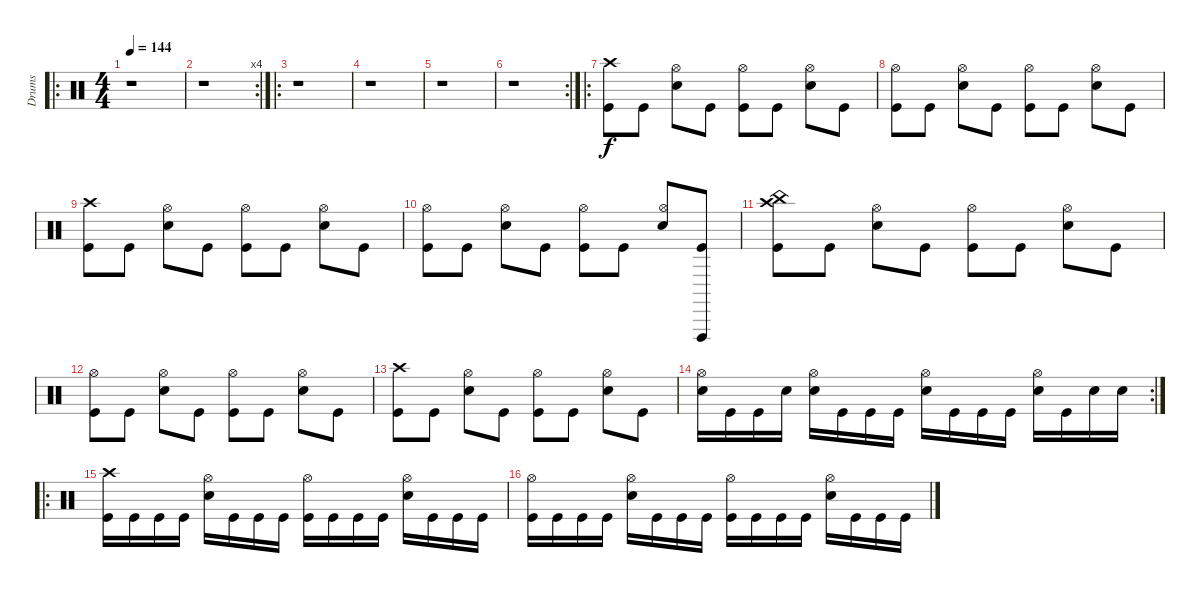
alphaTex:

\track ("Drums" "Drums") {instrument percussion}
\staff {score}
\articulation defaults
\ro
\ts (4 4)
\tempo 144
\clef neutral
\ks c
r.1{dy f} |
\rc 4
r.1 |
\ro
r.1 |
r.1 |
r.1 |
\rc 2
r.1 |
\ro
("Crash high (hit)" "Kick (hit)").8 "Kick (hit)".8 ("Hi-Hat (open)" "Electric Snare (hit)").8 "Kick (hit)".8 ("Hi-Hat (open)" "Kick (hit)").8 "Kick (hit)".8 ("Hi-Hat (open)" "Electric Snare (hit)").8 "Kick (hit)".8 |
("Hi-Hat (open)" "Kick (hit)").8 "Kick (hit)".8 ("Hi-Hat (open)" "Electric Snare (hit)").8 "Kick (hit)".8 ("Hi-Hat (open)" "Kick (hit)").8 "Kick (hit)".8 ("Hi-Hat (open)" "Electric Snare (hit)").8 "Kick (hit)".8 |
("Crash high (hit)" "Kick (hit)").8 "Kick (hit)".8 ("Hi-Hat (open)" "Electric Snare (hit)").8 "Kick (hit)".8 ("Hi-Hat (open)" "Kick (hit)").8 "Kick (hit)".8 ("Hi-Hat (open)" "Electric Snare (hit)").8 "Kick (hit)".8 |
("Hi-Hat (open)" "Kick (hit)").8 "Kick (hit)".8 ("Hi-Hat (open)" "Electric Snare (hit)").8 "Kick (hit)".8 ("Hi-Hat (open)" "Kick (hit)").8 "Kick (hit)".8 ("Hi-Hat (open)" "Electric Snare (hit)").8 ("Vibraslap (hit)" "Kick (hit)").8 |
("Crash high (hit)" "China (hit)" "Kick (hit)").8 "Kick (hit)".8 ("Hi-Hat (open)" "Electric Snare (hit)").8 "Kick (hit)".8 ("Hi-Hat (open)" "Kick (hit)").8 "Kick (hit)".8 ("Hi-Hat (open)" "Electric Snare (hit)").8 "Kick (hit)".8 |
("Hi-Hat (open)" "Kick (hit)").8 "Kick (hit)".8 ("Hi-Hat (open)" "Electric Snare (hit)").8 "Kick (hit)".8 ("Hi-Hat (open)" "Kick (hit)").8 "Kick (hit)".8 ("Hi-Hat (open)" "Electric Snare (hit)").8 "Kick (hit)".8 |
("Crash high (hit)" "Kick (hit)").8 "Kick (hit)".8 ("Hi-Hat (open)" "Electric Snare (hit)").8 "Kick (hit)".8 ("Hi-Hat (open)" "Kick (hit)").8 "Kick (hit)".8 ("Hi-Hat (open)" "Electric Snare (hit)").8 "Kick (hit)".8 |
\rc 2
("Hi-Hat (open)" "Electric Snare (hit)").16 "Kick (hit)".16 "Kick (hit)".16 "Electric Snare (hit)".16 ("Hi-Hat (open)" "Electric Snare (hit)").16 "Kick (hit)".16 "Kick (hit)".16 "Kick (hit)".16 ("Hi-Hat (open)" "Electric Snare (hit)").16 "Kick (hit)".16 "Kick (hit)".16 "Kick (hit)".16 ("Hi-Hat (open)" "Electric Snare (hit)").16 "Kick (hit)".16 "Electric Snare (hit)".16 "Electric Snare (hit)".16 |
\ro
("Crash high (hit)" "Kick (hit)").16 "Kick (hit)".16 "Kick (hit)".16 "Kick (hit)".16 ("Hi-Hat (open)" "Electric Snare (hit)").16 "Kick (hit)".16 "Kick (hit)".16 "Kick (hit)".16 ("Hi-Hat (open)" "Kick (hit)").16 "Kick (hit)".16 "Kick (hit)".16 "Kick (hit)".16 ("Hi-Hat (open)" "Electric Snare (hit)").16 "Kick (hit)".16 "Kick (hit)".16 "Kick (hit)".16 |
("Hi-Hat (open)" "Kick (hit)").16 "Kick (hit)".16 "Kick (hit)".16 "Kick (hit)".16 ("Hi-Hat (open)" "Electric Snare (hit)").16 "Kick (hit)".16 "Kick (hit)".16 "Kick (hit)".16 ("Hi-Hat (open)" "Kick (hit)").16 "Kick (hit)".16 "Kick (hit)".16 "Kick (hit)".16 ("Hi-Hat (open)" "Electric Snare (hit)").16 "Kick (hit)".16 "Kick (hit)".16 "Kick (hit)".16
